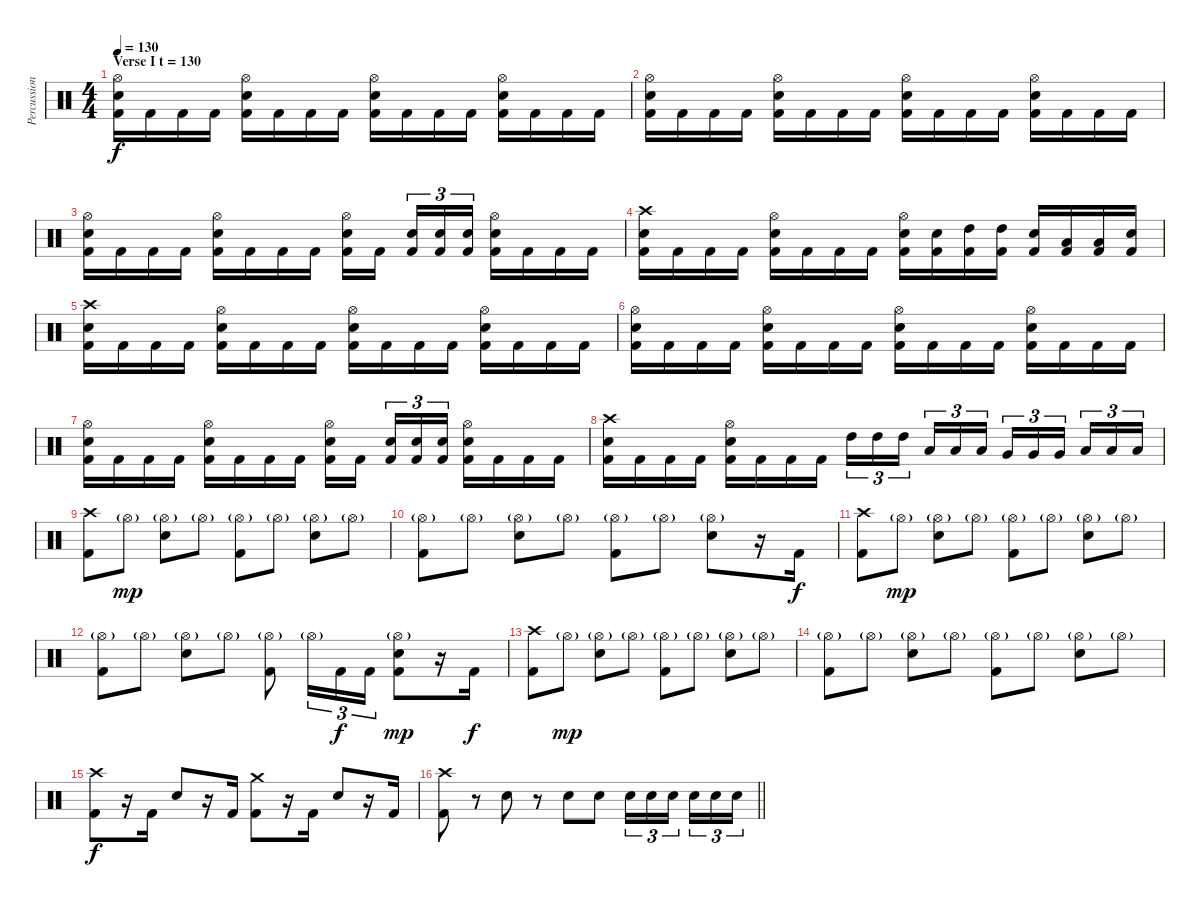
\track ("Percussion" "Percussion") {instrument percussion}
\staff {score}
\articulation defaults
\ts (4 4)
\section ("" "Verse I t = 130")
\tempo 130
\clef neutral
\ks c
("Hi-Hat (open)" "Electric Snare (hit)" "Kick (hit) 2").16{dy f} "Kick (hit) 2".16 "Kick (hit) 2".16 "Kick (hit) 2".16 ("Hi-Hat (open)" "Electric Snare (hit)" "Kick (hit) 2").16 "Kick (hit) 2".16 "Kick (hit) 2".16 "Kick (hit) 2".16 ("Hi-Hat (open)" "Electric Snare (hit)" "Kick (hit) 2").16 "Kick (hit) 2".16 "Kick (hit) 2".16 "Kick (hit) 2".16 ("Hi-Hat (open)" "Electric Snare (hit)" "Kick (hit) 2").16 "Kick (hit) 2".16 "Kick (hit) 2".16 "Kick (hit) 2".16 |
("Hi-Hat (open)" "Electric Snare (hit)" "Kick (hit) 2").16 "Kick (hit) 2".16 "Kick (hit) 2".16 "Kick (hit) 2".16 ("Hi-Hat (open)" "Electric Snare (hit)" "Kick (hit) 2").16 "Kick (hit) 2".16 "Kick (hit) 2".16 "Kick (hit) 2".16 ("Hi-Hat (open)" "Electric Snare (hit)" "Kick (hit) 2").16 "Kick (hit) 2".16 "Kick (hit) 2".16 "Kick (hit) 2".16 ("Hi-Hat (open)" "Electric Snare (hit)" "Kick (hit) 2").16 "Kick (hit) 2".16 "Kick (hit) 2".16 "Kick (hit) 2".16 |
("Hi-Hat (open)" "Electric Snare (hit)" "Kick (hit) 2").16 "Kick (hit) 2".16 "Kick (hit) 2".16 "Kick (hit) 2".16 ("Hi-Hat (open)" "Electric Snare (hit)" "Kick (hit) 2").16 "Kick (hit) 2".16 "Kick (hit) 2".16 "Kick (hit) 2".16 ("Hi-Hat (open)" "Electric Snare (hit)" "Kick (hit) 2").16 "Kick (hit) 2".16{beam splitsecondary} ("Electric Snare (hit)" "Kick (hit) 2").16{tu (3 2)} ("Electric Snare (hit)" "Kick (hit) 2").16{tu (3 2)} ("Electric Snare (hit)" "Kick (hit) 2").16{tu (3 2)} ("Hi-Hat (open)" "Electric Snare (hit)" "Kick (hit) 2").16 "Kick (hit) 2".16 "Kick (hit) 2".16 "Kick (hit) 2".16 |
("Crash high (hit)" "Electric Snare (hit)" "Kick (hit) 2").16 "Kick (hit) 2".16 "Kick (hit) 2".16 "Kick (hit) 2".16 ("Hi-Hat (open)" "Electric Snare (hit)" "Kick (hit) 2").16 "Kick (hit) 2".16 "Kick (hit) 2".16 "Kick (hit) 2".16 ("Hi-Hat (open)" "Electric Snare (hit)" "Kick (hit) 2").16 ("Electric Snare (hit)" "Kick (hit) 2").16 ("High Tom (hit)" "Kick (hit) 2").16 ("High Tom (hit)" "Kick (hit) 2").16 ("Electric Snare (hit)" "Kick (hit) 2").16 ("Low Tom (hit)" "Kick (hit) 2").16 ("Low Tom (hit)" "Kick (hit) 2").16 ("Electric Snare (hit)" "Kick (hit) 2").16 |
("Crash high (hit)" "Electric Snare (hit)" "Kick (hit) 2").16 "Kick (hit) 2".16 "Kick (hit) 2".16 "Kick (hit) 2".16 ("Hi-Hat (open)" "Electric Snare (hit)" "Kick (hit) 2").16 "Kick (hit) 2".16 "Kick (hit) 2".16 "Kick (hit) 2".16 ("Hi-Hat (open)" "Electric Snare (hit)" "Kick (hit) 2").16 "Kick (hit) 2".16 "Kick (hit) 2".16 "Kick (hit) 2".16 ("Hi-Hat (open)" "Electric Snare (hit)" "Kick (hit) 2").16 "Kick (hit) 2".16 "Kick (hit) 2".16 "Kick (hit) 2".16 |
("Hi-Hat (open)" "Electric Snare (hit)" "Kick (hit) 2").16 "Kick (hit) 2".16 "Kick (hit) 2".16 "Kick (hit) 2".16 ("Hi-Hat (open)" "Electric Snare (hit)" "Kick (hit) 2").16 "Kick (hit) 2".16 "Kick (hit) 2".16 "Kick (hit) 2".16 ("Hi-Hat (open)" "Electric Snare (hit)" "Kick (hit) 2").16 "Kick (hit) 2".16 "Kick (hit) 2".16 "Kick (hit) 2".16 ("Hi-Hat (open)" "Electric Snare (hit)" "Kick (hit) 2").16 "Kick (hit) 2".16 "Kick (hit) 2".16 "Kick (hit) 2".16 |
("Hi-Hat (open)" "Electric Snare (hit)" "Kick (hit) 2").16 "Kick (hit) 2".16 "Kick (hit) 2".16 "Kick (hit) 2".16 ("Hi-Hat (open)" "Electric Snare (hit)" "Kick (hit) 2").16 "Kick (hit) 2".16 "Kick (hit) 2".16 "Kick (hit) 2".16 ("Hi-Hat (open)" "Electric Snare (hit)" "Kick (hit) 2").16 "Kick (hit) 2".16{beam splitsecondary} ("Electric Snare (hit)" "Kick (hit) 2").16{tu (3 2)} ("Electric Snare (hit)" "Kick (hit) 2").16{tu (3 2)} ("Electric Snare (hit)" "Kick (hit) 2").16{tu (3 2)} ("Hi-Hat (open)" "Electric Snare (hit)" "Kick (hit) 2").16 "Kick (hit) 2".16 "Kick (hit) 2".16 "Kick (hit) 2".16 |
("Crash high (hit)" "Electric Snare (hit)" "Kick (hit) 2").16 "Kick (hit) 2".16 "Kick (hit) 2".16 "Kick (hit) 2".16 ("Hi-Hat (open)" "Electric Snare (hit)" "Kick (hit) 2").16 "Kick (hit) 2".16 "Kick (hit) 2".16 "Kick (hit) 2".16 "High Tom (hit)".16{tu (3 2)} "High Tom (hit)".16{tu (3 2)} "High Tom (hit)".16{tu (3 2) beam splitsecondary} "Low Tom (hit)".16{tu (3 2)} "Low Tom (hit)".16{tu (3 2)} "Low Tom (hit)".16{tu (3 2)} "Very Low Tom (hit)".16{tu (3 2)} "Very Low Tom (hit)".16{tu (3 2)} "Very Low Tom (hit)".16{tu (3 2) beam splitsecondary} "Low Floor Tom (hit)".16{tu (3 2)} "Low Floor Tom (hit)".16{tu (3 2)} "Low Floor Tom (hit)".16{tu (3 2)} |
("Crash high (hit)" "Kick (hit) 2").8 "Hi-Hat (open)"{g}.8{dy mp} ("Hi-Hat (open)"{g} "Electric Snare (hit)").8 "Hi-Hat (open)"{g}.8 ("Hi-Hat (open)"{g} "Kick (hit) 2").8 "Hi-Hat (open)"{g}.8 ("Hi-Hat (open)"{g} "Electric Snare (hit)").8 "Hi-Hat (open)"{g}.8 |
("Hi-Hat (open)"{g} "Kick (hit) 2").8 "Hi-Hat (open)"{g}.8 ("Hi-Hat (open)"{g} "Electric Snare (hit)").8 "Hi-Hat (open)"{g}.8 ("Hi-Hat (open)"{g} "Kick (hit) 2").8 "Hi-Hat (open)"{g}.8 ("Hi-Hat (open)"{g} "Electric Snare (hit)").8 r.16 "Kick (hit) 2".16{dy f} |
("Crash high (hit)" "Kick (hit) 2").8 "Hi-Hat (open)"{g}.8{dy mp} ("Hi-Hat (open)"{g} "Electric Snare (hit)").8 "Hi-Hat (open)"{g}.8 ("Hi-Hat (open)"{g} "Kick (hit) 2").8 "Hi-Hat (open)"{g}.8 ("Hi-Hat (open)"{g} "Electric Snare (hit)").8 "Hi-Hat (open)"{g}.8 |
("Hi-Hat (open)"{g} "Kick (hit) 2").8 "Hi-Hat (open)"{g}.8 ("Hi-Hat (open)"{g} "Electric Snare (hit)").8 "Hi-Hat (open)"{g}.8 ("Hi-Hat (open)"{g} "Kick (hit) 2").8 "Hi-Hat (open)"{g}.16{tu (3 2)} "Kick (hit) 2".16{tu (3 2) dy f} "Kick (hit) 2".16{tu (3 2)} ("Hi-Hat (open)"{g} "Electric Snare (hit)" "Kick (hit) 2").8{dy mp} r.16 "Kick (hit) 2".16{dy f} |
("Crash high (hit)" "Kick (hit) 2").8 "Hi-Hat (open)"{g}.8{dy mp} ("Hi-Hat (open)"{g} "Electric Snare (hit)").8 "Hi-Hat (open)"{g}.8 ("Hi-Hat (open)"{g} "Kick (hit) 2").8 "Hi-Hat (open)"{g}.8 ("Hi-Hat (open)"{g} "Electric Snare (hit)").8 "Hi-Hat (open)"{g}.8 |
("Hi-Hat (open)"{g} "Kick (hit) 2").8 "Hi-Hat (open)"{g}.8 ("Hi-Hat (open)"{g} "Electric Snare (hit)").8 "Hi-Hat (open)"{g}.8 ("Hi-Hat (open)"{g} "Kick (hit) 2").8 "Hi-Hat (open)"{g}.8 ("Hi-Hat (open)"{g} "Electric Snare (hit)").8 "Hi-Hat (open)"{g}.8 |
("Crash high (hit)" "Kick (hit) 2").8{dy f} r.16 "Kick (hit) 2".16 "Electric Snare (hit)".8 r.16 "Kick (hit) 2".16 ("Crash medium (hit)" "Kick (hit) 2").8 r.16 "Kick (hit) 2".16 "Electric Snare (hit)".8 r.16 "Kick (hit) 2".16 |
\barLineRight lightlight
("Crash high (hit)" "Kick (hit) 2").8 r.8 "Electric Snare (hit)".8 r.8 "Electric Snare (hit)".8 "Electric Snare (hit)".8 "Electric Snare (hit)".16{tu (3 2)} "Electric Snare (hit)".16{tu (3 2)} "Electric Snare (hit)".16{tu (3 2) beam splitsecondary} "Electric Snare (hit)".16{tu (3 2)} "Electric Snare (hit)".16{tu (3 2)} "Electric Snare (hit)".16{tu (3 2)}
